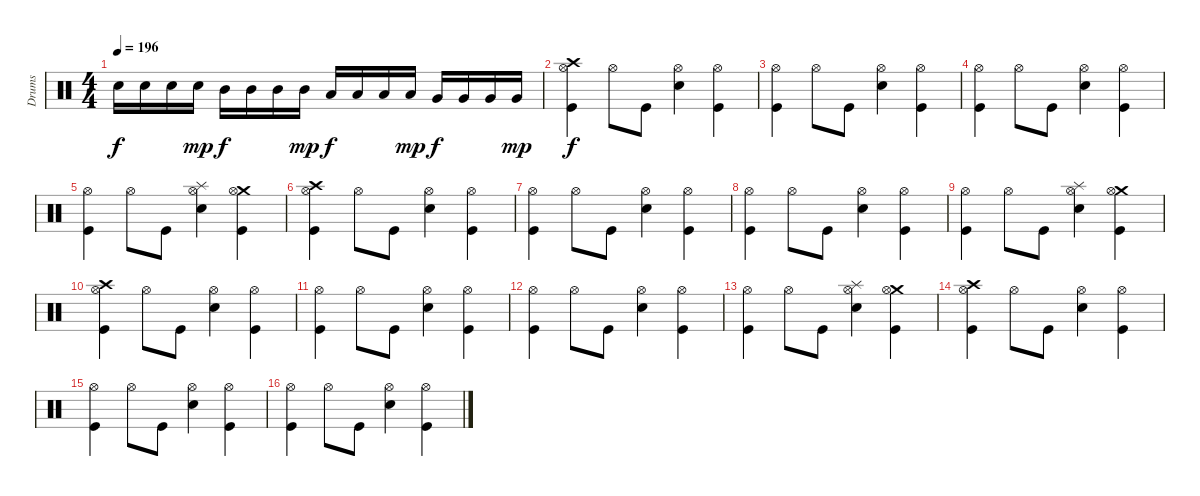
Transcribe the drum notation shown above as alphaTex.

\track ("Drums" "Drums") {instrument percussion}
\staff {score}
\articulation defaults
\ts (4 4)
\tempo 196
\clef neutral
\ks c "Electric Snare (hit)".16{dy f} "Electric Snare (hit)".16 "Electric Snare (hit)".16 "Electric Snare (hit)".16{dy mp} "Mid Tom (hit)".16{dy f} "Mid Tom (hit)".16 "Mid Tom (hit)".16 "Mid Tom (hit)".16{dy mp} "Low Tom (hit)".16{dy f} "Low Tom (hit)".16 "Low Tom (hit)".16 "Low Tom (hit)".16{dy mp} "Very Low Tom (hit)".16{dy f} "Very Low Tom (hit)".16 "Very Low Tom (hit)".16 "Very Low Tom (hit)".16{dy mp}
|
("Crash high (hit)" "Hi-Hat (open)" "Kick (hit)").4{dy f} "Hi-Hat (open)".8 "Kick (hit)".8 ("Hi-Hat (open)" "Electric Snare (hit)").4 ("Hi-Hat (open)" "Kick (hit)").4 |
("Hi-Hat (open)" "Kick (hit)").4 "Hi-Hat (open)".8 "Kick (hit)".8 ("Hi-Hat (open)" "Electric Snare (hit)").4 ("Hi-Hat (open)" "Kick (hit)").4 |
("Hi-Hat (open)" "Kick (hit)").4 "Hi-Hat (open)".8 "Kick (hit)".8 ("Hi-Hat (open)" "Electric Snare (hit)").4 ("Hi-Hat (open)" "Kick (hit)").4 |
("Hi-Hat (open)" "Kick (hit)").4 "Hi-Hat (open)".8 "Kick (hit)".8 ("Splash (hit)" "Hi-Hat (open)" "Electric Snare (hit)").4 ("Crash medium (hit)" "Hi-Hat (open)" "Kick (hit)").4 |
("Crash high (hit)" "Hi-Hat (open)" "Kick (hit)").4 "Hi-Hat (open)".8 "Kick (hit)".8 ("Hi-Hat (open)" "Electric Snare (hit)").4 ("Hi-Hat (open)" "Kick (hit)").4 |
("Hi-Hat (open)" "Kick (hit)").4 "Hi-Hat (open)".8 "Kick (hit)".8 ("Hi-Hat (open)" "Electric Snare (hit)").4 ("Hi-Hat (open)" "Kick (hit)").4 |
("Hi-Hat (open)" "Kick (hit)").4 "Hi-Hat (open)".8 "Kick (hit)".8 ("Hi-Hat (open)" "Electric Snare (hit)").4 ("Hi-Hat (open)" "Kick (hit)").4 |
("Hi-Hat (open)" "Kick (hit)").4 "Hi-Hat (open)".8 "Kick (hit)".8 ("Splash (hit)" "Hi-Hat (open)" "Electric Snare (hit)").4 ("Crash medium (hit)" "Hi-Hat (open)" "Kick (hit)").4 |
("Crash high (hit)" "Hi-Hat (open)" "Kick (hit)").4 "Hi-Hat (open)".8 "Kick (hit)".8 ("Hi-Hat (open)" "Electric Snare (hit)").4 ("Hi-Hat (open)" "Kick (hit)").4 |
("Hi-Hat (open)" "Kick (hit)").4 "Hi-Hat (open)".8 "Kick (hit)".8 ("Hi-Hat (open)" "Electric Snare (hit)").4 ("Hi-Hat (open)" "Kick (hit)").4 |
("Hi-Hat (open)" "Kick (hit)").4 "Hi-Hat (open)".8 "Kick (hit)".8 ("Hi-Hat (open)" "Electric Snare (hit)").4 ("Hi-Hat (open)" "Kick (hit)").4 |
("Hi-Hat (open)" "Kick (hit)").4 "Hi-Hat (open)".8 "Kick (hit)".8 ("Splash (hit)" "Hi-Hat (open)" "Electric Snare (hit)").4 ("Crash medium (hit)" "Hi-Hat (open)" "Kick (hit)").4 |
("Crash high (hit)" "Hi-Hat (open)" "Kick (hit)").4 "Hi-Hat (open)".8 "Kick (hit)".8 ("Hi-Hat (open)" "Electric Snare (hit)").4 ("Hi-Hat (open)" "Kick (hit)").4 |
("Hi-Hat (open)" "Kick (hit)").4 "Hi-Hat (open)".8 "Kick (hit)".8 ("Hi-Hat (open)" "Electric Snare (hit)").4 ("Hi-Hat (open)" "Kick (hit)").4 |
("Hi-Hat (open)" "Kick (hit)").4 "Hi-Hat (open)".8 "Kick (hit)".8 ("Hi-Hat (open)" "Electric Snare (hit)").4 ("Hi-Hat (open)" "Kick (hit)").4
